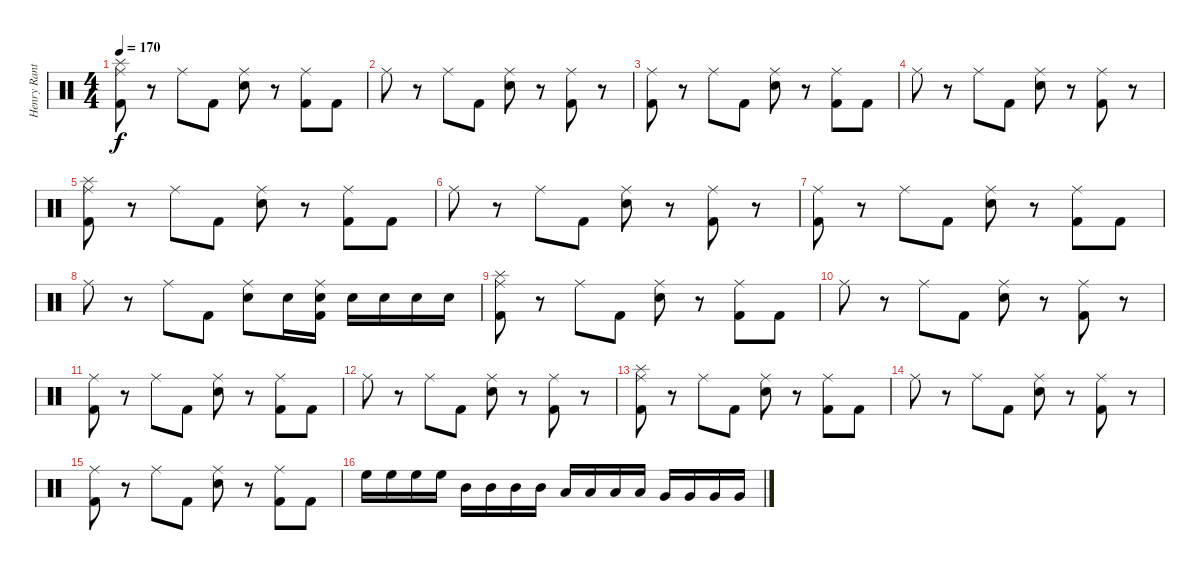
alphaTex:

\track ("Henry Ranta -Drums-" "Henry Rant") {instrument percussion}
\staff {score}
\articulation defaults
\ts (4 4)
\tempo 170
\clef neutral
\ks c
("Ride (middle)" "Splash (hit)" "Kick (hit) 2").8{dy f} r.8 "Ride (middle)".8 "Kick (hit) 2".8 ("Ride (middle)" "Snare (hit) 2").8 r.8 ("Ride (middle)" "Kick (hit) 2").8 "Kick (hit) 2".8 |
"Ride (middle)".8 r.8 "Ride (middle)".8 "Kick (hit) 2".8 ("Ride (middle)" "Snare (hit) 2").8 r.8 ("Ride (middle)" "Kick (hit) 2").8 r.8 |
("Ride (middle)" "Kick (hit) 2").8 r.8 "Ride (middle)".8 "Kick (hit) 2".8 ("Ride (middle)" "Snare (hit) 2").8 r.8 ("Ride (middle)" "Kick (hit) 2").8 "Kick (hit) 2".8 |
"Ride (middle)".8 r.8 "Ride (middle)".8 "Kick (hit) 2".8 ("Ride (middle)" "Snare (hit) 2").8 r.8 ("Ride (middle)" "Kick (hit) 2").8 r.8 |
("Ride (middle)" "Splash (hit)" "Kick (hit) 2").8 r.8 "Ride (middle)".8 "Kick (hit) 2".8 ("Ride (middle)" "Snare (hit) 2").8 r.8 ("Ride (middle)" "Kick (hit) 2").8 "Kick (hit) 2".8 |
"Ride (middle)".8 r.8 "Ride (middle)".8 "Kick (hit) 2".8 ("Ride (middle)" "Snare (hit) 2").8 r.8 ("Ride (middle)" "Kick (hit) 2").8 r.8 |
("Ride (middle)" "Kick (hit) 2").8 r.8 "Ride (middle)".8 "Kick (hit) 2".8 ("Ride (middle)" "Snare (hit) 2").8 r.8 ("Ride (middle)" "Kick (hit) 2").8 "Kick (hit) 2".8 |
"Ride (middle)".8 r.8 "Ride (middle)".8 "Kick (hit) 2".8 ("Ride (middle)" "Snare (hit) 2").8 "Snare (hit) 2".16 ("Ride (middle)" "Snare (hit) 2" "Kick (hit) 2").16 "Snare (hit) 2".16 "Snare (hit) 2".16 "Snare (hit) 2".16 "Snare (hit) 2".16 |
("Ride (middle)" "Splash (hit)" "Kick (hit) 2").8 r.8 "Ride (middle)".8 "Kick (hit) 2".8 ("Ride (middle)" "Snare (hit) 2").8 r.8 ("Ride (middle)" "Kick (hit) 2").8 "Kick (hit) 2".8 |
"Ride (middle)".8 r.8 "Ride (middle)".8 "Kick (hit) 2".8 ("Ride (middle)" "Snare (hit) 2").8 r.8 ("Ride (middle)" "Kick (hit) 2").8 r.8 |
("Ride (middle)" "Kick (hit) 2").8 r.8 "Ride (middle)".8 "Kick (hit) 2".8 ("Ride (middle)" "Snare (hit) 2").8 r.8 ("Ride (middle)" "Kick (hit) 2").8 "Kick (hit) 2".8 |
"Ride (middle)".8 r.8 "Ride (middle)".8 "Kick (hit) 2".8 ("Ride (middle)" "Snare (hit) 2").8 r.8 ("Ride (middle)" "Kick (hit) 2").8 r.8 |
("Ride (middle)" "Splash (hit)" "Kick (hit) 2").8 r.8 "Ride (middle)".8 "Kick (hit) 2".8 ("Ride (middle)" "Snare (hit) 2").8 r.8 ("Ride (middle)" "Kick (hit) 2").8 "Kick (hit) 2".8 |
"Ride (middle)".8 r.8 "Ride (middle)".8 "Kick (hit) 2".8 ("Ride (middle)" "Snare (hit) 2").8 r.8 ("Ride (middle)" "Kick (hit) 2").8 r.8 |
("Ride (middle)" "Kick (hit) 2").8 r.8 "Ride (middle)".8 "Kick (hit) 2".8 ("Ride (middle)" "Snare (hit) 2").8 r.8 ("Ride (middle)" "Kick (hit) 2").8 "Kick (hit) 2".8 |
"High Floor Tom (hit)".16 "High Floor Tom (hit)".16 "High Floor Tom (hit)".16 "High Floor Tom (hit)".16 "Mid Tom (hit)".16 "Mid Tom (hit)".16 "Mid Tom (hit)".16 "Mid Tom (hit)".16 "Low Tom (hit)".16 "Low Tom (hit)".16 "Low Tom (hit)".16 "Low Tom (hit)".16 "Very Low Tom (hit)".16 "Very Low Tom (hit)".16 "Very Low Tom (hit)".16 "Very Low Tom (hit)".16
